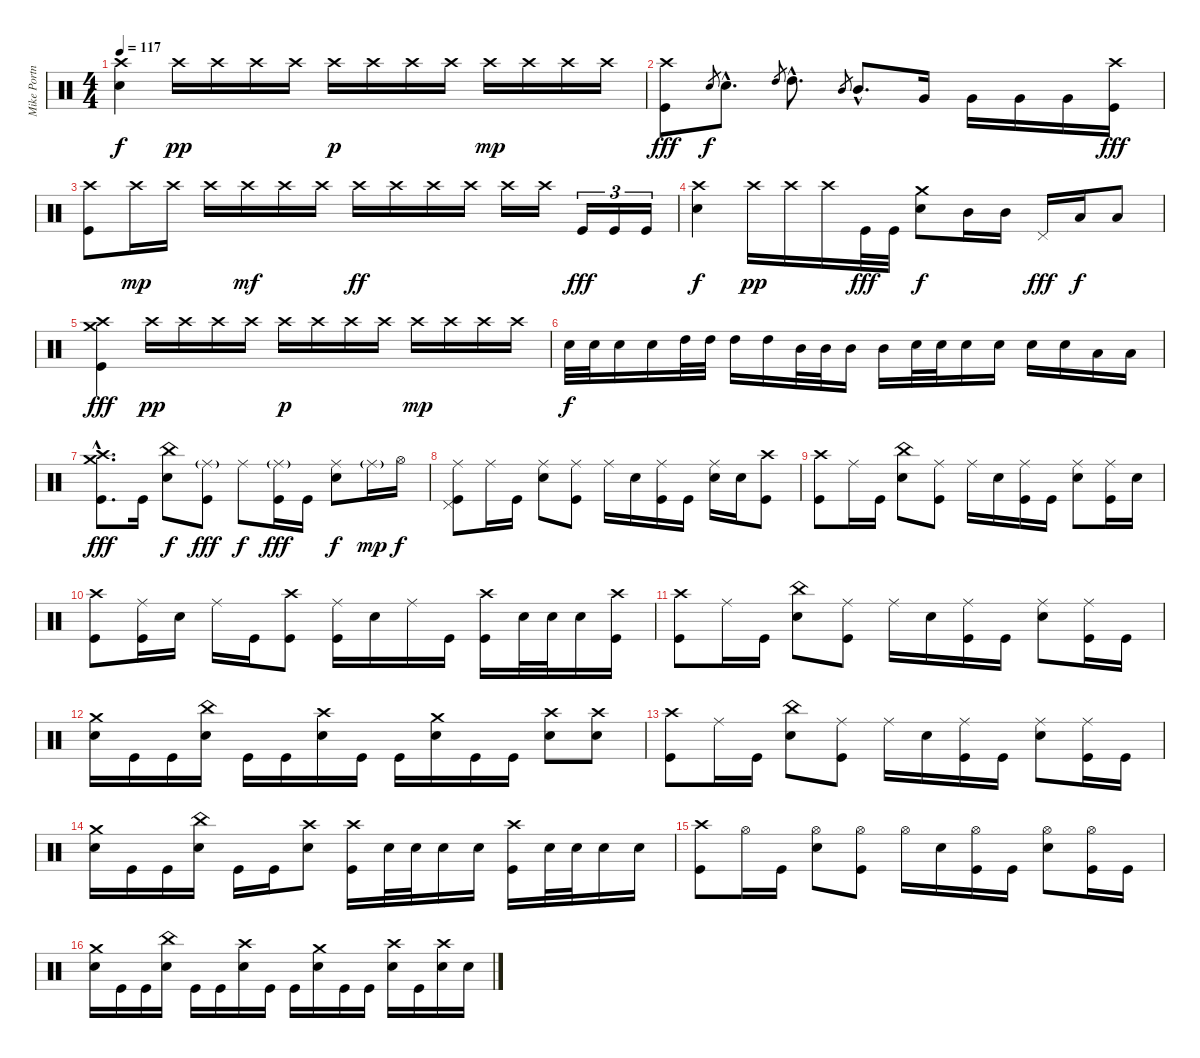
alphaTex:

\track ("Mike Portnoy" "Mike Portn") {instrument percussion}
\staff {score}
\articulation defaults
\ts (4 4)
\tempo 117
\clef neutral
\ks c
("Crash high (hit)" "Electric Snare (hit)").4{dy f} "Crash high (hit)".16{dy pp} "Crash high (hit)".16 "Crash high (hit)".16 "Crash high (hit)".16 "Crash high (hit)".16{dy p} "Crash high (hit)".16 "Crash high (hit)".16 "Crash high (hit)".16 "Crash high (hit)".16{dy mp} "Crash high (hit)".16 "Crash high (hit)".16 "Crash high (hit)".16 |
("Crash high (hit)" "Kick (hit)").8{dy fff} "Electric Snare (hit)".8{gr dy f} "Electric Snare (hit)"{hac}.8{d} "High Tom (hit)".8{gr} "High Tom (hit)"{hac}.8{d} "Mid Tom (hit)".8{gr} "Mid Tom (hit)"{hac}.8{d} "Very Low Tom (hit)".16 "Very Low Tom (hit)".16 "Very Low Tom (hit)".16 "Very Low Tom (hit)".16 ("Crash high (hit)" "Kick (hit)").16{dy fff} |
("Crash high (hit)" "Kick (hit)").8 "Crash high (hit)".16{dy mp} "Crash high (hit)".16 "Crash high (hit)".16 "Crash high (hit)".16{dy mf} "Crash high (hit)".16 "Crash high (hit)".16 "Crash high (hit)".16{dy ff} "Crash high (hit)".16 "Crash high (hit)".16 "Crash high (hit)".16 "Crash high (hit)".16 "Crash high (hit)".16 "Kick (hit)".16{tu (3 2) dy fff} "Kick (hit)".16{tu (3 2)} "Kick (hit)".16{tu (3 2)} |
("Crash high (hit)" "Electric Snare (hit)").4{dy f} "Crash high (hit)".16{dy pp} "Crash high (hit)".16 "Crash high (hit)".16 "Kick (hit)".32{dy fff} "Kick (hit)".32 ("Crash medium (hit)" "Electric Snare (hit)").8{dy f} "Mid Tom (hit)".16 "Mid Tom (hit)".16 "Pedal Hi-Hat (hit)".16{dy fff} "Low Tom (hit)".16{dy f} "Low Tom (hit)".8 |
("Crash high (hit)" "Crash medium (hit)" "Kick (hit)").4{dy fff} "Crash high (hit)".16{dy pp} "Crash high (hit)".16 "Crash high (hit)".16 "Crash high (hit)".16 "Crash high (hit)".16{dy p} "Crash high (hit)".16 "Crash high (hit)".16 "Crash high (hit)".16 "Crash high (hit)".16{dy mp} "Crash high (hit)".16 "Crash high (hit)".16 "Crash high (hit)".16 |
"Electric Snare (hit)".32{dy f} "Electric Snare (hit)".32 "Electric Snare (hit)".16 "Electric Snare (hit)".16 "High Tom (hit)".32 "High Tom (hit)".32 "High Tom (hit)".16 "High Tom (hit)".16 "Mid Tom (hit)".32 "Mid Tom (hit)".32 "Mid Tom (hit)".16 "Mid Tom (hit)".16 "Electric Snare (hit)".32 "Electric Snare (hit)".32 "Electric Snare (hit)".16 "Electric Snare (hit)".16 "Electric Snare (hit)".16 "Electric Snare (hit)".16 "Low Tom (hit)".16 "Low Tom (hit)".16 |
("Crash high (hit)"{hac} "Crash medium (hit)"{hac} "Kick (hit)"{hac}).8{d dy fff} "Kick (hit)".16 ("China (hit)" "Electric Snare (hit)").8{dy f} ("Ride (middle)"{g} "Kick (hit)").8{dy fff} "Ride (middle)".8{dy f} ("Ride (middle)"{g} "Kick (hit)").16{dy fff} "Kick (hit)".16 ("Ride (middle)" "Electric Snare (hit)").8{dy f} "Ride (middle)"{g}.16{dy mp} "Hi-Hat (open)".16{dy f} |
("Ride (middle)" "Pedal Hi-Hat (hit)" "Kick (hit)").8 "Ride (middle)".16 "Kick (hit)".16 ("Ride (middle)" "Electric Snare (hit)").8 ("Ride (middle)" "Kick (hit)").8 "Ride (middle)".16 "Electric Snare (hit)".16 ("Ride (middle)" "Kick (hit)").16 "Kick (hit)".16 ("Ride (middle)" "Electric Snare (hit)").16 "Electric Snare (hit)".16 ("Crash high (hit)" "Kick (hit)").8 |
("Crash high (hit)" "Kick (hit)").8 "Ride (middle)".16 "Kick (hit)".16 ("China (hit)" "Electric Snare (hit)").8 ("Ride (middle)" "Kick (hit)").8 "Ride (middle)".16 "Electric Snare (hit)".16 ("Ride (middle)" "Kick (hit)").16 "Kick (hit)".16 ("Ride (middle)" "Electric Snare (hit)").8 ("Ride (middle)" "Kick (hit)").16 "Electric Snare (hit)".16 |
("Crash high (hit)" "Kick (hit)").8 ("Ride (middle)" "Kick (hit)").16 "Electric Snare (hit)".16 "Ride (middle)".16 "Kick (hit)".16 ("Crash high (hit)" "Kick (hit)").8 ("Ride (middle)" "Kick (hit)").16 "Electric Snare (hit)".16 "Ride (middle)".16 "Kick (hit)".16 ("Crash high (hit)" "Kick (hit)").16 "Electric Snare (hit)".32 "Electric Snare (hit)".32 "Electric Snare (hit)".16 ("Crash high (hit)" "Kick (hit)").16 |
("Crash high (hit)" "Kick (hit)").8 "Ride (middle)".16 "Kick (hit)".16 ("China (hit)" "Electric Snare (hit)").8 ("Ride (middle)" "Kick (hit)").8 "Ride (middle)".16 "Electric Snare (hit)".16 ("Ride (middle)" "Kick (hit)").16 "Kick (hit)".16 ("Ride (middle)" "Electric Snare (hit)").8 ("Ride (middle)" "Kick (hit)").16 "Kick (hit)".16 |
("Crash medium (hit)" "Electric Snare (hit)").16 "Kick (hit)".16 "Kick (hit)".16 ("China (hit)" "Electric Snare (hit)").16 "Kick (hit)".16 "Kick (hit)".16 ("Crash high (hit)" "Electric Snare (hit)").16 "Kick (hit)".16 "Kick (hit)".16 ("Crash medium (hit)" "Electric Snare (hit)").16 "Kick (hit)".16 "Kick (hit)".16 ("Crash high (hit)" "Electric Snare (hit)").8 ("Crash high (hit)" "Electric Snare (hit)").8 |
("Crash high (hit)" "Kick (hit)").8 "Ride (middle)".16 "Kick (hit)".16 ("China (hit)" "Electric Snare (hit)").8 ("Ride (middle)" "Kick (hit)").8 "Ride (middle)".16 "Electric Snare (hit)".16 ("Ride (middle)" "Kick (hit)").16 "Kick (hit)".16 ("Ride (middle)" "Electric Snare (hit)").8 ("Ride (middle)" "Kick (hit)").16 "Kick (hit)".16 |
("Crash medium (hit)" "Electric Snare (hit)").16 "Kick (hit)".16 "Kick (hit)".16 ("China (hit)" "Electric Snare (hit)").16 "Kick (hit)".16 "Kick (hit)".16 ("Crash high (hit)" "Electric Snare (hit)").8 ("Crash high (hit)" "Kick (hit)").16 "Electric Snare (hit)".32 "Electric Snare (hit)".32 "Electric Snare (hit)".16 "Electric Snare (hit)".16 ("Crash high (hit)" "Kick (hit)").16 "Electric Snare (hit)".32 "Electric Snare (hit)".32 "Electric Snare (hit)".16 "Electric Snare (hit)".16 |
("Crash high (hit)" "Kick (hit)").8 "Hi-Hat (open)".16 "Kick (hit)".16 ("Hi-Hat (open)" "Electric Snare (hit)").8 ("Hi-Hat (open)" "Kick (hit)").8 "Hi-Hat (open)".16 "Electric Snare (hit)".16 ("Hi-Hat (open)" "Kick (hit)").16 "Kick (hit)".16 ("Hi-Hat (open)" "Electric Snare (hit)").8 ("Hi-Hat (open)" "Kick (hit)").16 "Kick (hit)".16 |
("Crash medium (hit)" "Electric Snare (hit)").16 "Kick (hit)".16 "Kick (hit)".16 ("China (hit)" "Electric Snare (hit)").16 "Kick (hit)".16 "Kick (hit)".16 ("Crash high (hit)" "Electric Snare (hit)").16 "Kick (hit)".16 "Kick (hit)".16 ("Crash medium (hit)" "Electric Snare (hit)").16 "Kick (hit)".16 "Kick (hit)".16 ("Crash high (hit)" "Electric Snare (hit)").16 "Kick (hit)".16 ("Crash high (hit)" "Electric Snare (hit)").16 "Electric Snare (hit)".16
